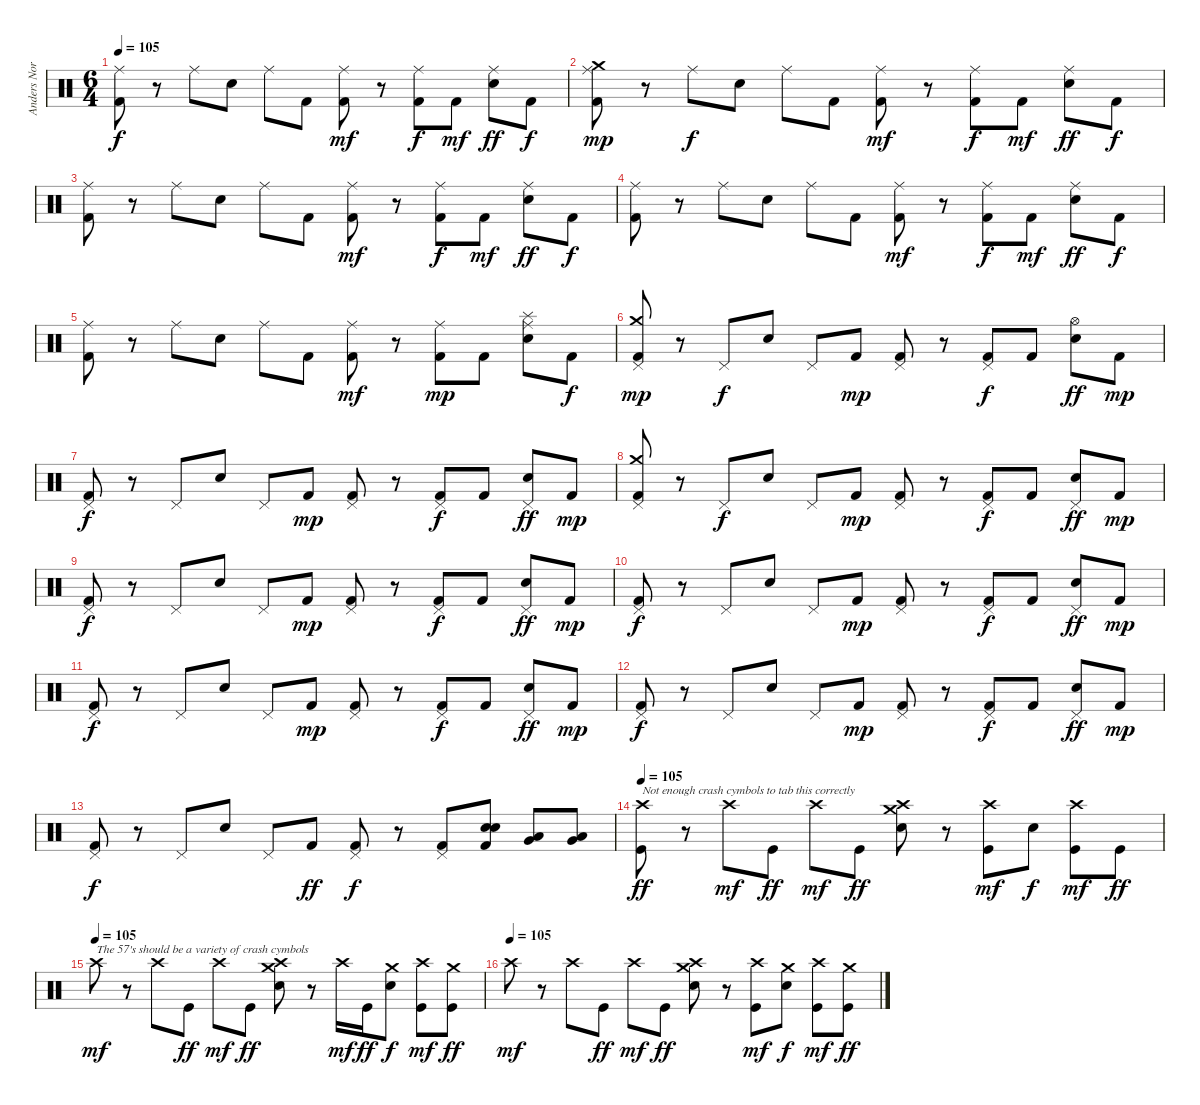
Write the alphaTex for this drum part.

\track ("Anders Nordin" "Anders Nor") {instrument percussion}
\staff {score}
\articulation defaults
\ts (6 4)
\tempo 105
\clef neutral
\ks c
("Ride (middle)" "Kick (hit) 2").8{dy f} r.8 "Ride (middle)".8 "Electric Snare (hit)".8 "Ride (middle)".8 "Kick (hit) 2".8 ("Ride (middle)" "Kick (hit) 2").8{dy mf} r.8 ("Ride (middle)" "Kick (hit) 2").8{dy f} "Kick (hit) 2".8{dy mf} ("Ride (middle)" "Snare (hit) 2").8{dy ff} "Kick (hit) 2".8{dy f} |
("Ride (middle)" "Crash medium (hit)" "Kick (hit) 2").8{dy mp} r.8 "Ride (middle)".8{dy f} "Electric Snare (hit)".8 "Ride (middle)".8 "Kick (hit) 2".8 ("Ride (middle)" "Kick (hit) 2").8{dy mf} r.8 ("Ride (middle)" "Kick (hit) 2").8{dy f} "Kick (hit) 2".8{dy mf} ("Ride (middle)" "Snare (hit) 2").8{dy ff} "Kick (hit) 2".8{dy f} |
("Ride (middle)" "Kick (hit) 2").8 r.8 "Ride (middle)".8 "Electric Snare (hit)".8 "Ride (middle)".8 "Kick (hit) 2".8 ("Ride (middle)" "Kick (hit) 2").8{dy mf} r.8 ("Ride (middle)" "Kick (hit) 2").8{dy f} "Kick (hit) 2".8{dy mf} ("Ride (middle)" "Snare (hit) 2").8{dy ff} "Kick (hit) 2".8{dy f} |
("Ride (middle)" "Kick (hit) 2").8 r.8 "Ride (middle)".8 "Electric Snare (hit)".8 "Ride (middle)".8 "Kick (hit) 2".8 ("Ride (middle)" "Kick (hit) 2").8{dy mf} r.8 ("Ride (middle)" "Kick (hit) 2").8{dy f} "Kick (hit) 2".8{dy mf} ("Ride (middle)" "Snare (hit) 2").8{dy ff} "Kick (hit) 2".8{dy f} |
("Ride (middle)" "Kick (hit) 2").8 r.8 "Ride (middle)".8 "Electric Snare (hit)".8 "Ride (middle)".8 "Kick (hit) 2".8 ("Ride (middle)" "Kick (hit) 2").8{dy mf} r.8 ("Ride (middle)" "Kick (hit) 2").8{dy mp} "Kick (hit) 2".8 ("Splash (hit)" "Ride (middle)" "Snare (hit) 2").8 "Kick (hit) 2".8{dy f} |
("Crash medium (hit)" "Pedal Hi-Hat (hit)" "Kick (hit) 2").8{dy mp} r.8 "Pedal Hi-Hat (hit)".8{dy f} "Electric Snare (hit)".8 "Pedal Hi-Hat (hit)".8 "Kick (hit) 2".8{dy mp} ("Pedal Hi-Hat (hit)" "Kick (hit) 2").8 r.8 ("Pedal Hi-Hat (hit)" "Kick (hit) 2").8{dy f} "Kick (hit) 2".8 ("Hi-Hat (open)" "Snare (hit) 2").8{dy ff} "Kick (hit) 2".8{dy mp} |
("Pedal Hi-Hat (hit)" "Kick (hit) 2").8{dy f} r.8 "Pedal Hi-Hat (hit)".8 "Electric Snare (hit)".8 "Pedal Hi-Hat (hit)".8 "Kick (hit) 2".8{dy mp} ("Pedal Hi-Hat (hit)" "Kick (hit) 2").8 r.8 ("Pedal Hi-Hat (hit)" "Kick (hit) 2").8{dy f} "Kick (hit) 2".8 ("Pedal Hi-Hat (hit)" "Snare (hit) 2").8{dy ff} "Kick (hit) 2".8{dy mp} |
("Crash medium (hit)" "Pedal Hi-Hat (hit)" "Kick (hit) 2").8 r.8 "Pedal Hi-Hat (hit)".8{dy f} "Electric Snare (hit)".8 "Pedal Hi-Hat (hit)".8 "Kick (hit) 2".8{dy mp} ("Pedal Hi-Hat (hit)" "Kick (hit) 2").8 r.8 ("Pedal Hi-Hat (hit)" "Kick (hit) 2").8{dy f} "Kick (hit) 2".8 ("Pedal Hi-Hat (hit)" "Snare (hit) 2").8{dy ff} "Kick (hit) 2".8{dy mp} |
("Pedal Hi-Hat (hit)" "Kick (hit) 2").8{dy f} r.8 "Pedal Hi-Hat (hit)".8 "Electric Snare (hit)".8 "Pedal Hi-Hat (hit)".8 "Kick (hit) 2".8{dy mp} ("Pedal Hi-Hat (hit)" "Kick (hit) 2").8 r.8 ("Pedal Hi-Hat (hit)" "Kick (hit) 2").8{dy f} "Kick (hit) 2".8 ("Pedal Hi-Hat (hit)" "Snare (hit) 2").8{dy ff} "Kick (hit) 2".8{dy mp} |
("Pedal Hi-Hat (hit)" "Kick (hit) 2").8{dy f} r.8 "Pedal Hi-Hat (hit)".8 "Electric Snare (hit)".8 "Pedal Hi-Hat (hit)".8 "Kick (hit) 2".8{dy mp} ("Pedal Hi-Hat (hit)" "Kick (hit) 2").8 r.8 ("Pedal Hi-Hat (hit)" "Kick (hit) 2").8{dy f} "Kick (hit) 2".8 ("Pedal Hi-Hat (hit)" "Snare (hit) 2").8{dy ff} "Kick (hit) 2".8{dy mp} |
("Pedal Hi-Hat (hit)" "Kick (hit) 2").8{dy f} r.8 "Pedal Hi-Hat (hit)".8 "Electric Snare (hit)".8 "Pedal Hi-Hat (hit)".8 "Kick (hit) 2".8{dy mp} ("Pedal Hi-Hat (hit)" "Kick (hit) 2").8 r.8 ("Pedal Hi-Hat (hit)" "Kick (hit) 2").8{dy f} "Kick (hit) 2".8 ("Pedal Hi-Hat (hit)" "Snare (hit) 2").8{dy ff} "Kick (hit) 2".8{dy mp} |
("Pedal Hi-Hat (hit)" "Kick (hit) 2").8{dy f} r.8 "Pedal Hi-Hat (hit)".8 "Electric Snare (hit)".8 "Pedal Hi-Hat (hit)".8 "Kick (hit) 2".8{dy mp} ("Pedal Hi-Hat (hit)" "Kick (hit) 2").8 r.8 ("Pedal Hi-Hat (hit)" "Kick (hit) 2").8{dy f} "Kick (hit) 2".8 ("Pedal Hi-Hat (hit)" "Snare (hit) 2").8{dy ff} "Kick (hit) 2".8{dy mp} |
("Pedal Hi-Hat (hit)" "Kick (hit) 2").8{dy f} r.8 "Pedal Hi-Hat (hit)".8 "Electric Snare (hit)".8 "Pedal Hi-Hat (hit)".8 "Kick (hit) 2".8{dy ff} ("Pedal Hi-Hat (hit)" "Kick (hit) 2").8{dy f} r.8 ("Pedal Hi-Hat (hit)" "Kick (hit) 2").8 ("Snare (hit) 2" "Electric Snare (hit)" "Kick (hit) 2").8 ("Low Tom (hit)" "Very Low Tom (hit)").8 ("Very Low Tom (hit)" "Low Floor Tom (hit)").8 |
\tempo 105
("Crash high (hit)" "Kick (hit)").8{txt "Not enough crash cymbols to tab this correctly " dy ff} r.8 "Crash high (hit)".8{dy mf} "Kick (hit)".8{dy ff} "Crash high (hit)".8{dy mf} "Kick (hit)".8{dy ff} ("Crash high (hit)" "Crash medium (hit)" "Electric Snare (hit)").8 r.8 ("Crash high (hit)" "Kick (hit)").8{dy mf} "Electric Snare (hit)".8{dy f} ("Crash high (hit)" "Kick (hit)").8{dy mf} "Kick (hit)".8{dy ff} |
\tempo (105)
"Crash high (hit)".8{txt "The 57's should be a variety of crash cymbols" dy mf} r.8 "Crash high (hit)".8 "Kick (hit)".8{dy ff} "Crash high (hit)".8{dy mf} "Kick (hit)".8{dy ff} ("Crash high (hit)" "Crash medium (hit)" "Electric Snare (hit)").8 r.8 "Crash high (hit)".16{dy mf} "Kick (hit)".16{dy ff} ("Crash medium (hit)" "Electric Snare (hit)").8{dy f} ("Crash high (hit)" "Kick (hit)").8{dy mf} ("Crash medium (hit)" "Kick (hit)").8{dy ff} |
\tempo (105)
"Crash high (hit)".8{dy mf} r.8 "Crash high (hit)".8 "Kick (hit)".8{dy ff} "Crash high (hit)".8{dy mf} "Kick (hit)".8{dy ff} ("Crash high (hit)" "Crash medium (hit)" "Electric Snare (hit)").8 r.8 ("Crash high (hit)" "Kick (hit)").8{dy mf} ("Crash medium (hit)" "Electric Snare (hit)").8{dy f} ("Crash high (hit)" "Kick (hit)").8{dy mf} ("Crash medium (hit)" "Kick (hit)").8{dy ff}
